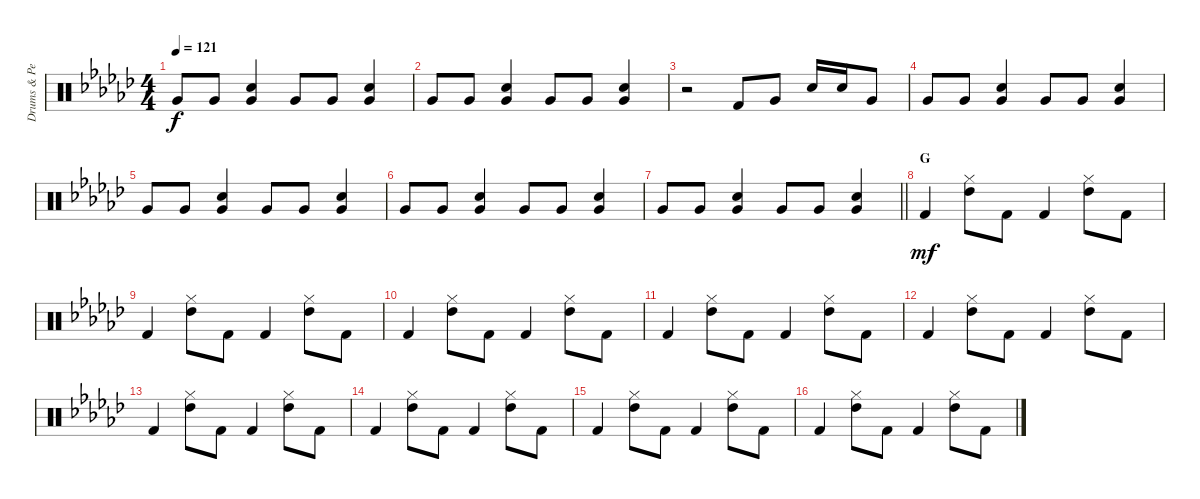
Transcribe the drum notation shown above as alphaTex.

\track ("Drums & Percussion" "Drums & Pe") {instrument percussion bank 98}
\staff {score}
\articulation defaults
\ts (4 4)
\tempo 121
\clef neutral
\ks ebminor "Very Low Tom (hit)".8{dy f} "Very Low Tom (hit)".8
("Snare (hit) 2" "Very Low Tom (hit)").4 "Very Low Tom (hit)".8 "Very Low Tom (hit)".8 ("Snare (hit) 2" "Very Low Tom (hit)").4 |
"Very Low Tom (hit)".8 "Very Low Tom (hit)".8 ("Snare (hit) 2" "Very Low Tom (hit)").4 "Very Low Tom (hit)".8 "Very Low Tom (hit)".8 ("Snare (hit) 2" "Very Low Tom (hit)").4 |
r.2 "Kick (hit) 2".8 "Very Low Tom (hit)".8 "Snare (hit) 2".16 "Snare (hit) 2".16 "Very Low Tom (hit)".8 |
"Very Low Tom (hit)".8 "Very Low Tom (hit)".8 ("Snare (hit) 2" "Very Low Tom (hit)").4 "Very Low Tom (hit)".8 "Very Low Tom (hit)".8 ("Snare (hit) 2" "Very Low Tom (hit)").4 |
"Very Low Tom (hit)".8 "Very Low Tom (hit)".8 ("Snare (hit) 2" "Very Low Tom (hit)").4 "Very Low Tom (hit)".8 "Very Low Tom (hit)".8 ("Snare (hit) 2" "Very Low Tom (hit)").4 |
"Very Low Tom (hit)".8 "Very Low Tom (hit)".8 ("Snare (hit) 2" "Very Low Tom (hit)").4 "Very Low Tom (hit)".8 "Very Low Tom (hit)".8 ("Snare (hit) 2" "Very Low Tom (hit)").4 |
\barLineRight lightlight "Very Low Tom (hit)".8 "Very Low Tom (hit)".8
("Snare (hit) 2" "Very Low Tom (hit)").4 "Very Low Tom (hit)".8 "Very Low Tom (hit)".8 ("Snare (hit) 2" "Very Low Tom (hit)").4 |
\section ("" "G")
"Kick (hit) 2".4{dy mf} ("Hi-Hat (closed)" "High Tom (hit)").8 "Kick (hit) 2".8 "Kick (hit) 2".4 ("Hi-Hat (closed)" "High Tom (hit)").8 "Kick (hit) 2".8 |
"Kick (hit) 2".4 ("Hi-Hat (closed)" "High Tom (hit)").8 "Kick (hit) 2".8 "Kick (hit) 2".4 ("Hi-Hat (closed)" "High Tom (hit)").8 "Kick (hit) 2".8 |
"Kick (hit) 2".4 ("Hi-Hat (closed)" "High Tom (hit)").8 "Kick (hit) 2".8 "Kick (hit) 2".4 ("Hi-Hat (closed)" "High Tom (hit)").8 "Kick (hit) 2".8 |
"Kick (hit) 2".4 ("Hi-Hat (closed)" "High Tom (hit)").8 "Kick (hit) 2".8 "Kick (hit) 2".4 ("Hi-Hat (closed)" "High Tom (hit)").8 "Kick (hit) 2".8 |
"Kick (hit) 2".4 ("Hi-Hat (closed)" "High Tom (hit)").8 "Kick (hit) 2".8 "Kick (hit) 2".4 ("Hi-Hat (closed)" "High Tom (hit)").8 "Kick (hit) 2".8 |
"Kick (hit) 2".4 ("Hi-Hat (closed)" "High Tom (hit)").8 "Kick (hit) 2".8 "Kick (hit) 2".4 ("Hi-Hat (closed)" "High Tom (hit)").8 "Kick (hit) 2".8 |
"Kick (hit) 2".4 ("Hi-Hat (closed)" "High Tom (hit)").8 "Kick (hit) 2".8 "Kick (hit) 2".4 ("Hi-Hat (closed)" "High Tom (hit)").8 "Kick (hit) 2".8 |
"Kick (hit) 2".4 ("Hi-Hat (closed)" "High Tom (hit)").8 "Kick (hit) 2".8 "Kick (hit) 2".4 ("Hi-Hat (closed)" "High Tom (hit)").8 "Kick (hit) 2".8 |
"Kick (hit) 2".4 ("Hi-Hat (closed)" "High Tom (hit)").8 "Kick (hit) 2".8 "Kick (hit) 2".4 ("Hi-Hat (closed)" "High Tom (hit)").8 "Kick (hit) 2".8
